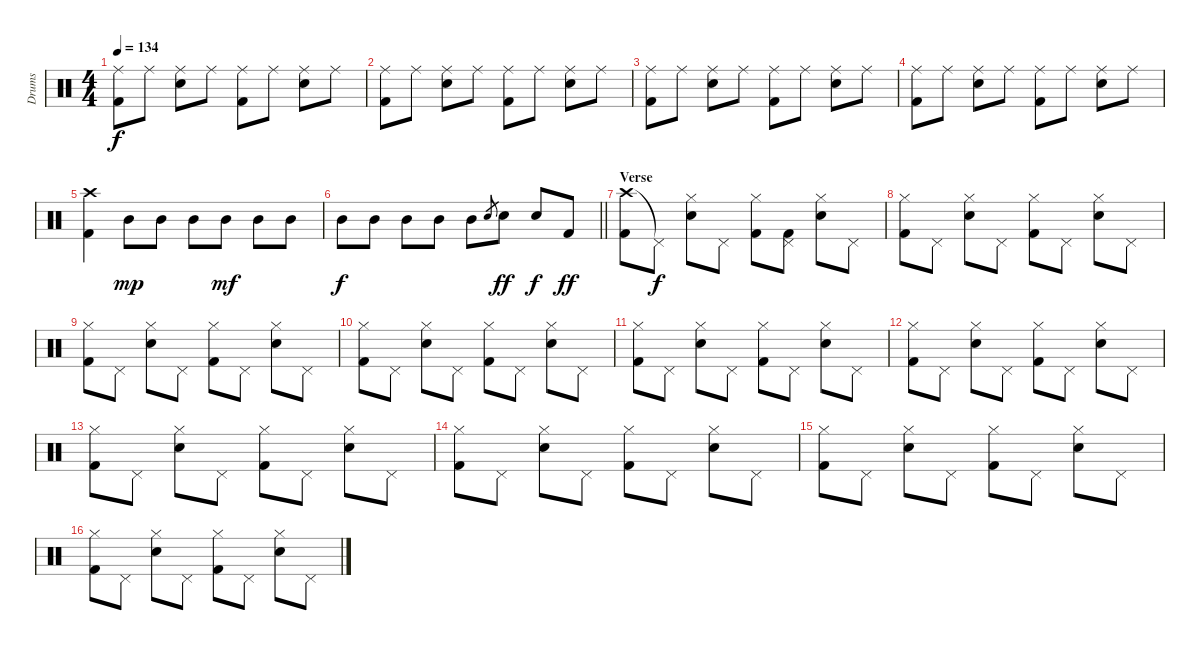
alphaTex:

\track ("Drums" "Drums") {instrument percussion}
\staff {score}
\articulation defaults
\ts (4 4)
\tempo 134
\clef neutral
\ks c
("Ride (middle)" "Kick (hit) 2").8{dy f} "Ride (middle)".8 ("Ride (middle)" "Snare (hit) 2").8 "Ride (middle)".8 ("Ride (middle)" "Kick (hit) 2").8 "Ride (middle)".8 ("Ride (middle)" "Snare (hit) 2").8 "Ride (middle)".8 |
("Ride (middle)" "Kick (hit) 2").8 "Ride (middle)".8 ("Ride (middle)" "Snare (hit) 2").8 "Ride (middle)".8 ("Ride (middle)" "Kick (hit) 2").8 "Ride (middle)".8 ("Ride (middle)" "Snare (hit) 2").8 "Ride (middle)".8 |
("Ride (middle)" "Kick (hit) 2").8 "Ride (middle)".8 ("Ride (middle)" "Snare (hit) 2").8 "Ride (middle)".8 ("Ride (middle)" "Kick (hit) 2").8 "Ride (middle)".8 ("Ride (middle)" "Snare (hit) 2").8 "Ride (middle)".8 |
("Ride (middle)" "Kick (hit) 2").8 "Ride (middle)".8 ("Ride (middle)" "Snare (hit) 2").8 "Ride (middle)".8 ("Ride (middle)" "Kick (hit) 2").8 "Ride (middle)".8 ("Ride (middle)" "Snare (hit) 2").8 "Ride (middle)".8 |
("Crash high (hit)" "Kick (hit) 2").4 "Mid Tom (hit)".8{dy mp} "Mid Tom (hit)".8 "Mid Tom (hit)".8 "Mid Tom (hit)".8{dy mf} "Mid Tom (hit)".8 "Mid Tom (hit)".8 |
\barLineRight lightlight "Mid Tom (hit)".8{dy f} "Mid Tom (hit)".8 "Mid Tom (hit)".8 "Mid Tom (hit)".8 "Mid Tom (hit)".8 "Snare (hit) 2".8{gr} "Snare (hit) 2".8{dy ff} "Snare (hit) 2".8{dy f} "Kick (hit) 2".8{dy ff}
|
\section ("" "Verse")
("Crash high (hit)" "Kick (hit) 2").8 "Pedal Hi-Hat (hit)"{t}.8{dy f} ("Hi-Hat (closed)" "Snare (hit) 2").8 "Pedal Hi-Hat (hit)".8 ("Hi-Hat (closed)" "Kick (hit) 2").8 ("Pedal Hi-Hat (hit)" "Kick (hit) 2").8 ("Hi-Hat (closed)" "Snare (hit) 2").8 "Pedal Hi-Hat (hit)".8 |
("Hi-Hat (closed)" "Kick (hit) 2").8 "Pedal Hi-Hat (hit)".8 ("Hi-Hat (closed)" "Snare (hit) 2").8 "Pedal Hi-Hat (hit)".8 ("Hi-Hat (closed)" "Kick (hit) 2").8 "Pedal Hi-Hat (hit)".8 ("Hi-Hat (closed)" "Snare (hit) 2").8 "Pedal Hi-Hat (hit)".8 |
("Hi-Hat (closed)" "Kick (hit) 2").8 "Pedal Hi-Hat (hit)".8 ("Hi-Hat (closed)" "Snare (hit) 2").8 "Pedal Hi-Hat (hit)".8 ("Hi-Hat (closed)" "Kick (hit) 2").8 "Pedal Hi-Hat (hit)".8 ("Hi-Hat (closed)" "Snare (hit) 2").8 "Pedal Hi-Hat (hit)".8 |
("Hi-Hat (closed)" "Kick (hit) 2").8 "Pedal Hi-Hat (hit)".8 ("Hi-Hat (closed)" "Snare (hit) 2").8 "Pedal Hi-Hat (hit)".8 ("Hi-Hat (closed)" "Kick (hit) 2").8 "Pedal Hi-Hat (hit)".8 ("Hi-Hat (closed)" "Snare (hit) 2").8 "Pedal Hi-Hat (hit)".8 |
("Hi-Hat (closed)" "Kick (hit) 2").8 "Pedal Hi-Hat (hit)".8 ("Hi-Hat (closed)" "Snare (hit) 2").8 "Pedal Hi-Hat (hit)".8 ("Hi-Hat (closed)" "Kick (hit) 2").8 "Pedal Hi-Hat (hit)".8 ("Hi-Hat (closed)" "Snare (hit) 2").8 "Pedal Hi-Hat (hit)".8 |
("Hi-Hat (closed)" "Kick (hit) 2").8 "Pedal Hi-Hat (hit)".8 ("Hi-Hat (closed)" "Snare (hit) 2").8 "Pedal Hi-Hat (hit)".8 ("Hi-Hat (closed)" "Kick (hit) 2").8 "Pedal Hi-Hat (hit)".8 ("Hi-Hat (closed)" "Snare (hit) 2").8 "Pedal Hi-Hat (hit)".8 |
("Hi-Hat (closed)" "Kick (hit) 2").8 "Pedal Hi-Hat (hit)".8 ("Hi-Hat (closed)" "Snare (hit) 2").8 "Pedal Hi-Hat (hit)".8 ("Hi-Hat (closed)" "Kick (hit) 2").8 "Pedal Hi-Hat (hit)".8 ("Hi-Hat (closed)" "Snare (hit) 2").8 "Pedal Hi-Hat (hit)".8 |
("Hi-Hat (closed)" "Kick (hit) 2").8 "Pedal Hi-Hat (hit)".8 ("Hi-Hat (closed)" "Snare (hit) 2").8 "Pedal Hi-Hat (hit)".8 ("Hi-Hat (closed)" "Kick (hit) 2").8 "Pedal Hi-Hat (hit)".8 ("Hi-Hat (closed)" "Snare (hit) 2").8 "Pedal Hi-Hat (hit)".8 |
("Hi-Hat (closed)" "Kick (hit) 2").8 "Pedal Hi-Hat (hit)".8 ("Hi-Hat (closed)" "Snare (hit) 2").8 "Pedal Hi-Hat (hit)".8 ("Hi-Hat (closed)" "Kick (hit) 2").8 "Pedal Hi-Hat (hit)".8 ("Hi-Hat (closed)" "Snare (hit) 2").8 "Pedal Hi-Hat (hit)".8 |
("Hi-Hat (closed)" "Kick (hit) 2").8 "Pedal Hi-Hat (hit)".8 ("Hi-Hat (closed)" "Snare (hit) 2").8 "Pedal Hi-Hat (hit)".8 ("Hi-Hat (closed)" "Kick (hit) 2").8 "Pedal Hi-Hat (hit)".8 ("Hi-Hat (closed)" "Snare (hit) 2").8 "Pedal Hi-Hat (hit)".8
